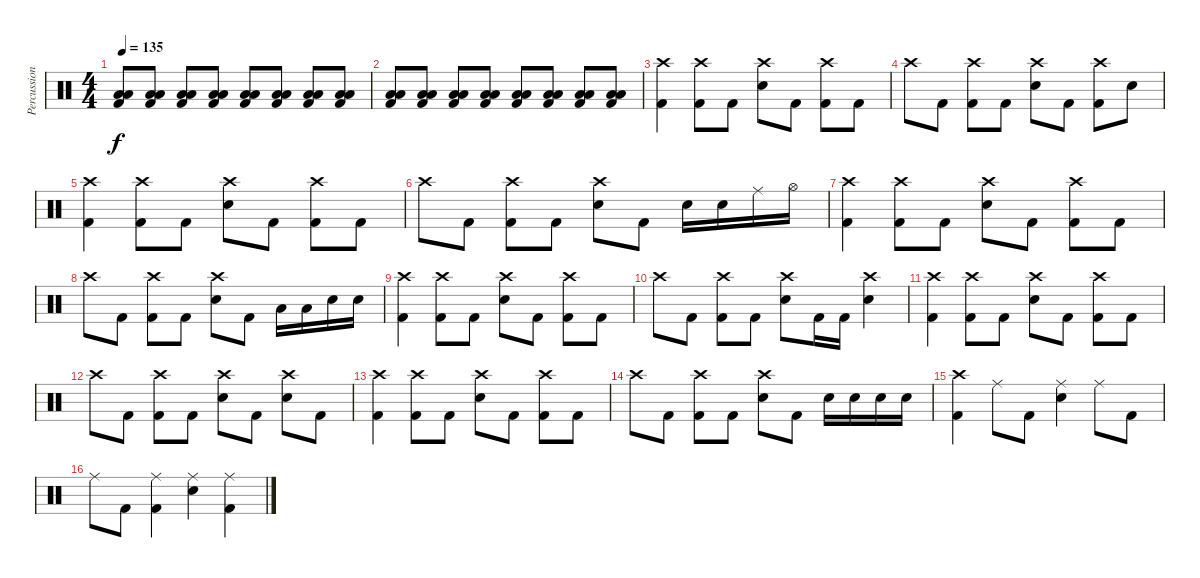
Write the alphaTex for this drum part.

\track ("Percussion" "Percussion") {instrument percussion}
\staff {score}
\articulation defaults
\ts (4 4)
\tempo 135
\clef neutral
\ks c
("Low Tom (hit)" "Low Floor Tom (hit)" "Kick (hit) 2").8{dy f} ("Low Tom (hit)" "Low Floor Tom (hit)" "Kick (hit) 2").8 ("Low Tom (hit)" "Low Floor Tom (hit)" "Kick (hit) 2").8 ("Low Tom (hit)" "Low Floor Tom (hit)" "Kick (hit) 2").8 ("Low Tom (hit)" "Low Floor Tom (hit)" "Kick (hit) 2").8 ("Low Tom (hit)" "Low Floor Tom (hit)" "Kick (hit) 2").8 ("Low Tom (hit)" "Low Floor Tom (hit)" "Kick (hit) 2").8 ("Low Tom (hit)" "Low Floor Tom (hit)" "Kick (hit) 2").8 |
("Low Tom (hit)" "Low Floor Tom (hit)" "Kick (hit) 2").8 ("Low Tom (hit)" "Low Floor Tom (hit)" "Kick (hit) 2").8 ("Low Tom (hit)" "Low Floor Tom (hit)" "Kick (hit) 2").8 ("Low Tom (hit)" "Low Floor Tom (hit)" "Kick (hit) 2").8 ("Low Tom (hit)" "Low Floor Tom (hit)" "Kick (hit) 2").8 ("Low Tom (hit)" "Low Floor Tom (hit)" "Kick (hit) 2").8 ("Low Tom (hit)" "Low Floor Tom (hit)" "Kick (hit) 2").8 ("Low Tom (hit)" "Low Floor Tom (hit)" "Kick (hit) 2").8 |
("Crash high (hit)" "Kick (hit) 2").4 ("Crash high (hit)" "Kick (hit) 2").8 "Kick (hit) 2".8 ("Crash high (hit)" "Electric Snare (hit)").8 "Kick (hit) 2".8 ("Crash high (hit)" "Kick (hit) 2").8 "Kick (hit) 2".8 |
"Crash high (hit)".8 "Kick (hit) 2".8 ("Crash high (hit)" "Kick (hit) 2").8 "Kick (hit) 2".8 ("Crash high (hit)" "Electric Snare (hit)").8 "Kick (hit) 2".8 ("Crash high (hit)" "Kick (hit) 2").8 "Electric Snare (hit)".8 |
("Crash high (hit)" "Kick (hit) 2").4 ("Crash high (hit)" "Kick (hit) 2").8 "Kick (hit) 2".8 ("Crash high (hit)" "Electric Snare (hit)").8 "Kick (hit) 2".8 ("Crash high (hit)" "Kick (hit) 2").8 "Kick (hit) 2".8 |
"Crash high (hit)".8 "Kick (hit) 2".8 ("Crash high (hit)" "Kick (hit) 2").8 "Kick (hit) 2".8 ("Crash high (hit)" "Electric Snare (hit)").8 "Kick (hit) 2".8 "Electric Snare (hit)".16 "Electric Snare (hit)".16 "Ride (middle)".16 "Hi-Hat (open)".16 |
("Crash high (hit)" "Kick (hit) 2").4 ("Crash high (hit)" "Kick (hit) 2").8 "Kick (hit) 2".8 ("Crash high (hit)" "Electric Snare (hit)").8 "Kick (hit) 2".8 ("Crash high (hit)" "Kick (hit) 2").8 "Kick (hit) 2".8 |
"Crash high (hit)".8 "Kick (hit) 2".8 ("Crash high (hit)" "Kick (hit) 2").8 "Kick (hit) 2".8 ("Crash high (hit)" "Electric Snare (hit)").8 "Kick (hit) 2".8 "Low Tom (hit)".16 "Low Floor Tom (hit)".16 "Electric Snare (hit)".16 "Electric Snare (hit)".16 |
("Crash high (hit)" "Kick (hit) 2").4 ("Crash high (hit)" "Kick (hit) 2").8 "Kick (hit) 2".8 ("Crash high (hit)" "Electric Snare (hit)").8 "Kick (hit) 2".8 ("Crash high (hit)" "Kick (hit) 2").8 "Kick (hit) 2".8 |
"Crash high (hit)".8 "Kick (hit) 2".8 ("Crash high (hit)" "Kick (hit) 2").8 "Kick (hit) 2".8 ("Crash high (hit)" "Electric Snare (hit)").8 "Kick (hit) 2".16 "Kick (hit) 2".16 ("Crash high (hit)" "Electric Snare (hit)").4 |
("Crash high (hit)" "Kick (hit) 2").4 ("Crash high (hit)" "Kick (hit) 2").8 "Kick (hit) 2".8 ("Crash high (hit)" "Electric Snare (hit)").8 "Kick (hit) 2".8 ("Crash high (hit)" "Kick (hit) 2").8 "Kick (hit) 2".8 |
"Crash high (hit)".8 "Kick (hit) 2".8 ("Crash high (hit)" "Kick (hit) 2").8 "Kick (hit) 2".8 ("Crash high (hit)" "Electric Snare (hit)").8 "Kick (hit) 2".8 ("Crash high (hit)" "Electric Snare (hit)").8 "Kick (hit) 2".8 |
("Crash high (hit)" "Kick (hit) 2").4 ("Crash high (hit)" "Kick (hit) 2").8 "Kick (hit) 2".8 ("Crash high (hit)" "Electric Snare (hit)").8 "Kick (hit) 2".8 ("Crash high (hit)" "Kick (hit) 2").8 "Kick (hit) 2".8 |
"Crash high (hit)".8 "Kick (hit) 2".8 ("Crash high (hit)" "Kick (hit) 2").8 "Kick (hit) 2".8 ("Crash high (hit)" "Electric Snare (hit)").8 "Kick (hit) 2".8 "Electric Snare (hit)".16 "Electric Snare (hit)".16 "Electric Snare (hit)".16 "Electric Snare (hit)".16 |
("Crash high (hit)" "Kick (hit) 2").4 "Ride (middle)".8 "Kick (hit) 2".8 ("Ride (middle)" "Electric Snare (hit)").4 "Ride (middle)".8 "Kick (hit) 2".8 |
"Ride (middle)".8 "Kick (hit) 2".8 ("Ride (middle)" "Kick (hit) 2").4 ("Ride (middle)" "Electric Snare (hit)").4 ("Ride (middle)" "Kick (hit) 2").4
